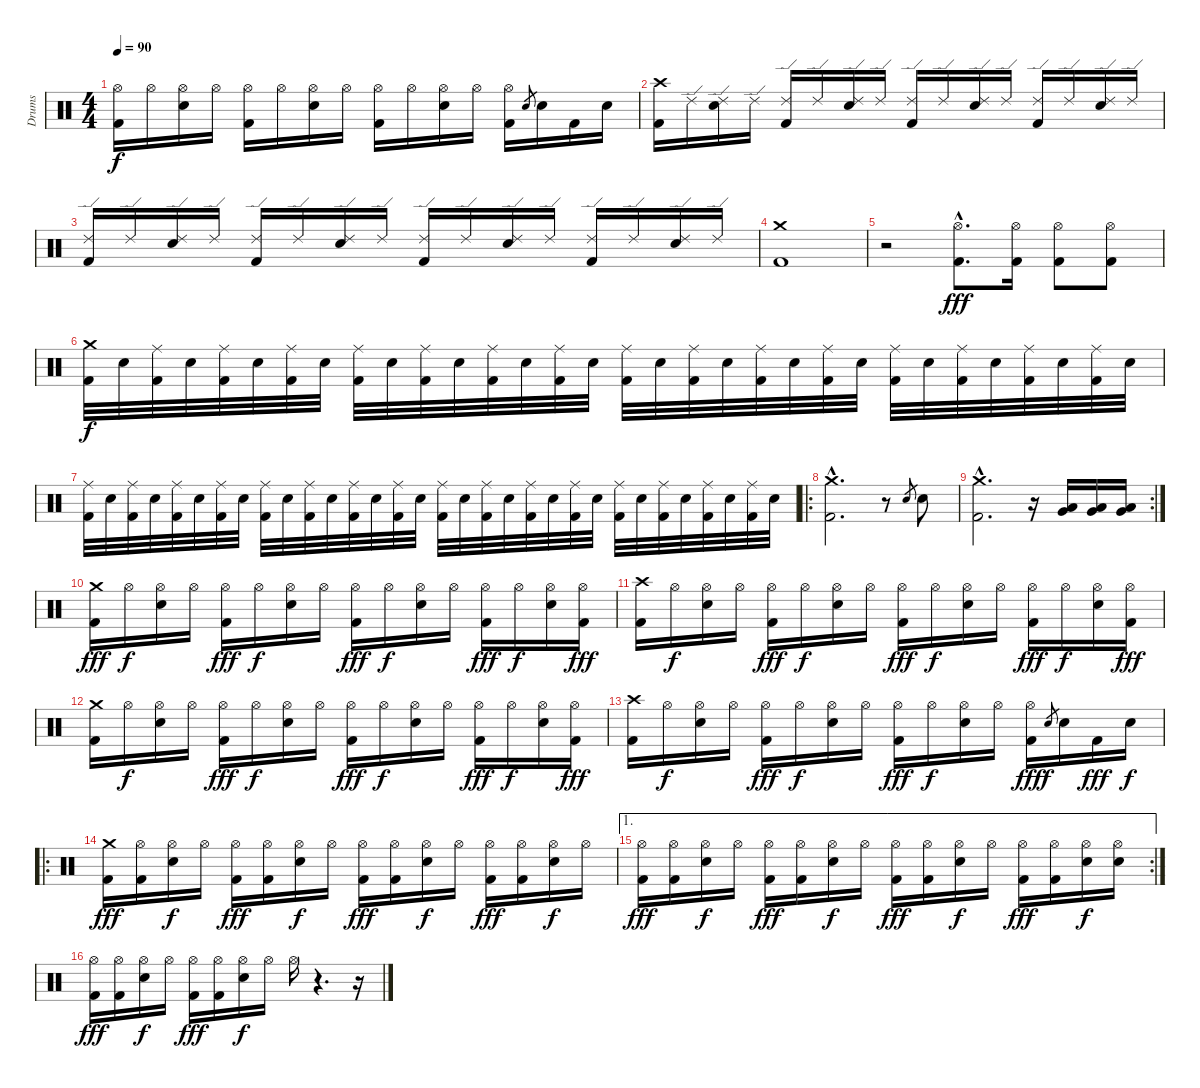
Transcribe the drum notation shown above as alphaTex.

\track ("Drums" "Drums") {instrument percussion}
\staff {score}
\articulation defaults
\ts (4 4)
\tempo 90
\clef neutral
\ks c
("Hi-Hat (open)" "Kick (hit) 2").16{dy f} "Hi-Hat (open)".16 ("Hi-Hat (open)" "Electric Snare (hit)").16 "Hi-Hat (open)".16 ("Hi-Hat (open)" "Kick (hit) 2").16 "Hi-Hat (open)".16 ("Hi-Hat (open)" "Electric Snare (hit)").16 "Hi-Hat (open)".16 ("Hi-Hat (open)" "Kick (hit) 2").16 "Hi-Hat (open)".16 ("Hi-Hat (open)" "Electric Snare (hit)").16 "Hi-Hat (open)".16 ("Hi-Hat (open)" "Kick (hit) 2").16 "Electric Snare (hit)".8{gr} "Electric Snare (hit)".16 "Kick (hit) 2".16 "Electric Snare (hit)".16 |
("Crash high (hit)" "Kick (hit) 2").16 "Ride (edge) 2".16 ("Ride (edge) 2" "Electric Snare (hit)").16 "Ride (edge) 2".16 ("Ride (edge) 2" "Kick (hit) 2").16 "Ride (edge) 2".16 ("Ride (edge) 2" "Electric Snare (hit)").16 "Ride (edge) 2".16 ("Ride (edge) 2" "Kick (hit) 2").16 "Ride (edge) 2".16 ("Ride (edge) 2" "Electric Snare (hit)").16 "Ride (edge) 2".16 ("Ride (edge) 2" "Kick (hit) 2").16 "Ride (edge) 2".16 ("Ride (edge) 2" "Electric Snare (hit)").16 "Ride (edge) 2".16 |
("Ride (edge) 2" "Kick (hit) 2").16 "Ride (edge) 2".16 ("Ride (edge) 2" "Electric Snare (hit)").16 "Ride (edge) 2".16 ("Ride (edge) 2" "Kick (hit) 2").16 "Ride (edge) 2".16 ("Ride (edge) 2" "Electric Snare (hit)").16 "Ride (edge) 2".16 ("Ride (edge) 2" "Kick (hit) 2").16 "Ride (edge) 2".16 ("Ride (edge) 2" "Electric Snare (hit)").16 "Ride (edge) 2".16 ("Ride (edge) 2" "Kick (hit) 2").16 "Ride (edge) 2".16 ("Ride (edge) 2" "Electric Snare (hit)").16 "Ride (edge) 2".16 |
("Crash medium (hit)" "Kick (hit) 2").1 |
r.2 ("Hi-Hat (open)"{hac} "Kick (hit) 2"{hac}).8{d dy fff} ("Hi-Hat (open)" "Kick (hit) 2").16 ("Hi-Hat (open)" "Kick (hit) 2").8 ("Hi-Hat (open)" "Kick (hit) 2").8 |
("Crash medium (hit)" "Kick (hit) 2").32{dy f} "Electric Snare (hit)".32 ("Ride (middle)" "Kick (hit) 2").32 "Electric Snare (hit)".32 ("Ride (middle)" "Kick (hit) 2").32 "Electric Snare (hit)".32 ("Ride (middle)" "Kick (hit) 2").32 "Electric Snare (hit)".32 ("Ride (middle)" "Kick (hit) 2").32 "Electric Snare (hit)".32 ("Ride (middle)" "Kick (hit) 2").32 "Electric Snare (hit)".32 ("Ride (middle)" "Kick (hit) 2").32 "Electric Snare (hit)".32 ("Ride (middle)" "Kick (hit) 2").32 "Electric Snare (hit)".32 ("Ride (middle)" "Kick (hit) 2").32 "Electric Snare (hit)".32 ("Ride (middle)" "Kick (hit) 2").32 "Electric Snare (hit)".32 ("Ride (middle)" "Kick (hit) 2").32 "Electric Snare (hit)".32 ("Ride (middle)" "Kick (hit) 2").32 "Electric Snare (hit)".32 ("Ride (middle)" "Kick (hit) 2").32 "Electric Snare (hit)".32 ("Ride (middle)" "Kick (hit) 2").32 "Electric Snare (hit)".32 ("Ride (middle)" "Kick (hit) 2").32 "Electric Snare (hit)".32 ("Ride (middle)" "Kick (hit) 2").32 "Electric Snare (hit)".32 |
("Ride (middle)" "Kick (hit) 2").32 "Electric Snare (hit)".32 ("Ride (middle)" "Kick (hit) 2").32 "Electric Snare (hit)".32 ("Ride (middle)" "Kick (hit) 2").32 "Electric Snare (hit)".32 ("Ride (middle)" "Kick (hit) 2").32 "Electric Snare (hit)".32 ("Ride (middle)" "Kick (hit) 2").32 "Electric Snare (hit)".32 ("Ride (middle)" "Kick (hit) 2").32 "Electric Snare (hit)".32 ("Ride (middle)" "Kick (hit) 2").32 "Electric Snare (hit)".32 ("Ride (middle)" "Kick (hit) 2").32 "Electric Snare (hit)".32 ("Ride (middle)" "Kick (hit) 2").32 "Electric Snare (hit)".32 ("Ride (middle)" "Kick (hit) 2").32 "Electric Snare (hit)".32 ("Ride (middle)" "Kick (hit) 2").32 "Electric Snare (hit)".32 ("Ride (middle)" "Kick (hit) 2").32 "Electric Snare (hit)".32 ("Ride (middle)" "Kick (hit) 2").32 "Electric Snare (hit)".32 ("Ride (middle)" "Kick (hit) 2").32 "Electric Snare (hit)".32 ("Ride (middle)" "Kick (hit) 2").32 "Electric Snare (hit)".32 ("Ride (middle)" "Kick (hit) 2").32 "Electric Snare (hit)".32 |
\ro
("Crash medium (hit)"{hac} "Kick (hit) 2"{hac}).2{d} r.8 "Electric Snare (hit)".8{gr} "Electric Snare (hit)".8 |
\rc 2
("Crash medium (hit)"{hac} "Kick (hit) 2"{hac}).2{d} r.16 ("Very Low Tom (hit)" "Low Floor Tom (hit)").16 ("Very Low Tom (hit)" "Low Floor Tom (hit)").16 ("Very Low Tom (hit)" "Low Floor Tom (hit)").16 |
("Crash medium (hit)" "Kick (hit) 2").16{dy fff} "Hi-Hat (open)".16{dy f} ("Hi-Hat (open)" "Electric Snare (hit)").16 "Hi-Hat (open)".16 ("Hi-Hat (open)" "Kick (hit) 2").16{dy fff} "Hi-Hat (open)".16{dy f} ("Hi-Hat (open)" "Electric Snare (hit)").16 "Hi-Hat (open)".16 ("Hi-Hat (open)" "Kick (hit) 2").16{dy fff} "Hi-Hat (open)".16{dy f} ("Hi-Hat (open)" "Electric Snare (hit)").16 "Hi-Hat (open)".16 ("Hi-Hat (open)" "Kick (hit) 2").16{dy fff} "Hi-Hat (open)".16{dy f} ("Hi-Hat (open)" "Electric Snare (hit)").16 ("Hi-Hat (open)" "Kick (hit) 2").16{dy fff} |
("Crash high (hit)" "Kick (hit) 2").16 "Hi-Hat (open)".16{dy f} ("Hi-Hat (open)" "Electric Snare (hit)").16 "Hi-Hat (open)".16 ("Hi-Hat (open)" "Kick (hit) 2").16{dy fff} "Hi-Hat (open)".16{dy f} ("Hi-Hat (open)" "Electric Snare (hit)").16 "Hi-Hat (open)".16 ("Hi-Hat (open)" "Kick (hit) 2").16{dy fff} "Hi-Hat (open)".16{dy f} ("Hi-Hat (open)" "Electric Snare (hit)").16 "Hi-Hat (open)".16 ("Hi-Hat (open)" "Kick (hit) 2").16{dy fff} "Hi-Hat (open)".16{dy f} ("Hi-Hat (open)" "Electric Snare (hit)").16 ("Hi-Hat (open)" "Kick (hit) 2").16{dy fff} |
("Crash medium (hit)" "Kick (hit) 2").16 "Hi-Hat (open)".16{dy f} ("Hi-Hat (open)" "Electric Snare (hit)").16 "Hi-Hat (open)".16 ("Hi-Hat (open)" "Kick (hit) 2").16{dy fff} "Hi-Hat (open)".16{dy f} ("Hi-Hat (open)" "Electric Snare (hit)").16 "Hi-Hat (open)".16 ("Hi-Hat (open)" "Kick (hit) 2").16{dy fff} "Hi-Hat (open)".16{dy f} ("Hi-Hat (open)" "Electric Snare (hit)").16 "Hi-Hat (open)".16 ("Hi-Hat (open)" "Kick (hit) 2").16{dy fff} "Hi-Hat (open)".16{dy f} ("Hi-Hat (open)" "Electric Snare (hit)").16 ("Hi-Hat (open)" "Kick (hit) 2").16{dy fff} |
("Crash high (hit)" "Kick (hit) 2").16 "Hi-Hat (open)".16{dy f} ("Hi-Hat (open)" "Electric Snare (hit)").16 "Hi-Hat (open)".16 ("Hi-Hat (open)" "Kick (hit) 2").16{dy fff} "Hi-Hat (open)".16{dy f} ("Hi-Hat (open)" "Electric Snare (hit)").16 "Hi-Hat (open)".16 ("Hi-Hat (open)" "Kick (hit) 2").16{dy fff} "Hi-Hat (open)".16{dy f} ("Hi-Hat (open)" "Electric Snare (hit)").16 "Hi-Hat (open)".16 ("Hi-Hat (open)" "Kick (hit) 2").16{dy fff} "Electric Snare (hit)".8{gr dy f} "Electric Snare (hit)".16 "Kick (hit) 2".16{dy fff} "Electric Snare (hit)".16{dy f} |
\ro
("Crash medium (hit)" "Kick (hit) 2").16{dy fff} ("Hi-Hat (open)" "Kick (hit) 2").16 ("Hi-Hat (open)" "Electric Snare (hit)").16{dy f} "Hi-Hat (open)".16 ("Hi-Hat (open)" "Kick (hit) 2").16{dy fff} ("Hi-Hat (open)" "Kick (hit) 2").16 ("Hi-Hat (open)" "Electric Snare (hit)").16{dy f} "Hi-Hat (open)".16 ("Hi-Hat (open)" "Kick (hit) 2").16{dy fff} ("Hi-Hat (open)" "Kick (hit) 2").16 ("Hi-Hat (open)" "Electric Snare (hit)").16{dy f} "Hi-Hat (open)".16 ("Hi-Hat (open)" "Kick (hit) 2").16{dy fff} ("Hi-Hat (open)" "Kick (hit) 2").16 ("Hi-Hat (open)" "Electric Snare (hit)").16{dy f} "Hi-Hat (open)".16 |
\ae 1
\rc 2
("Hi-Hat (open)" "Kick (hit) 2").16{dy fff} ("Hi-Hat (open)" "Kick (hit) 2").16 ("Hi-Hat (open)" "Electric Snare (hit)").16{dy f} "Hi-Hat (open)".16 ("Hi-Hat (open)" "Kick (hit) 2").16{dy fff} ("Hi-Hat (open)" "Kick (hit) 2").16 ("Hi-Hat (open)" "Electric Snare (hit)").16{dy f} "Hi-Hat (open)".16 ("Hi-Hat (open)" "Kick (hit) 2").16{dy fff} ("Hi-Hat (open)" "Kick (hit) 2").16 ("Hi-Hat (open)" "Electric Snare (hit)").16{dy f} "Hi-Hat (open)".16 ("Hi-Hat (open)" "Kick (hit) 2").16{dy fff} ("Hi-Hat (open)" "Kick (hit) 2").16 ("Hi-Hat (open)" "Electric Snare (hit)").16{dy f} ("Hi-Hat (open)" "Electric Snare (hit)").16 |
("Hi-Hat (open)" "Kick (hit) 2").16{dy fff} ("Hi-Hat (open)" "Kick (hit) 2").16 ("Hi-Hat (open)" "Electric Snare (hit)").16{dy f} "Hi-Hat (open)".16 ("Hi-Hat (open)" "Kick (hit) 2").16{dy fff} ("Hi-Hat (open)" "Kick (hit) 2").16 ("Hi-Hat (open)" "Electric Snare (hit)").16{dy f} "Hi-Hat (open)".16 "Hi-Hat (open)".16 r.4{d} r.16
